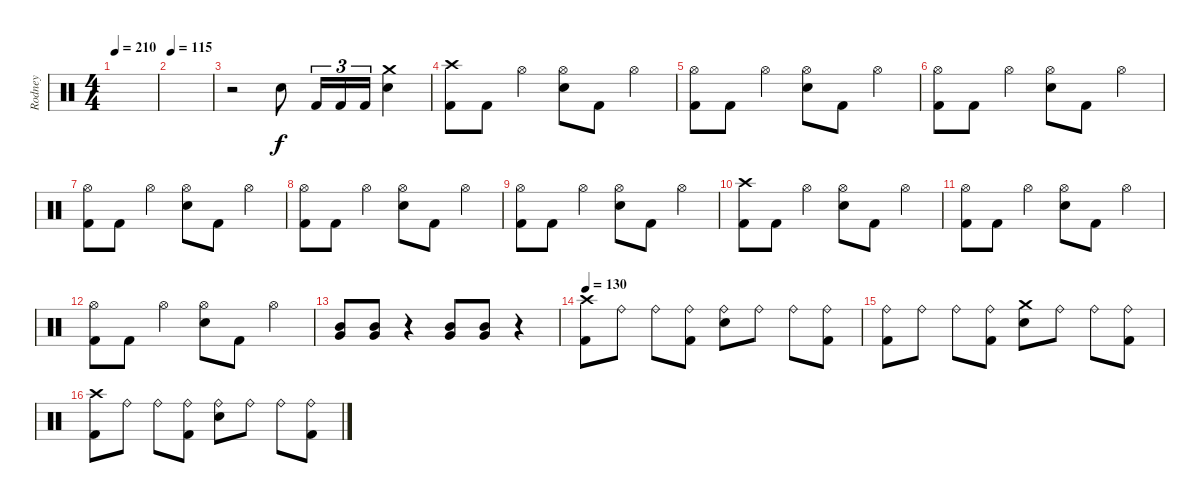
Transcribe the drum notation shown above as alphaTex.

\track ("Rodney" "Rodney") {instrument percussion}
\staff {score}
\articulation defaults
\ts (4 4)
\tempo 210
\tempo 25
\tempo 210
\clef neutral
\ks c
|
\tempo 115
|
r.2 "Snare (hit) 2".8 "Kick (hit) 2".16{tu (3 2)} "Kick (hit) 2".16{tu (3 2)} "Kick (hit) 2".16{tu (3 2)} ("Crash medium (hit)" "Snare (hit) 2").4 |
("Crash high (hit)" "Kick (hit) 2").8 "Kick (hit) 2".8 "Hi-Hat (open)".4 ("Hi-Hat (open)" "Snare (hit) 2").8 "Kick (hit) 2".8 "Hi-Hat (open)".4 |
("Hi-Hat (open)" "Kick (hit) 2").8 "Kick (hit) 2".8 "Hi-Hat (open)".4 ("Hi-Hat (open)" "Snare (hit) 2").8 "Kick (hit) 2".8 "Hi-Hat (open)".4 |
("Hi-Hat (open)" "Kick (hit) 2").8 "Kick (hit) 2".8 "Hi-Hat (open)".4 ("Hi-Hat (open)" "Snare (hit) 2").8 "Kick (hit) 2".8 "Hi-Hat (open)".4 |
("Hi-Hat (open)" "Kick (hit) 2").8 "Kick (hit) 2".8 "Hi-Hat (open)".4 ("Hi-Hat (open)" "Snare (hit) 2").8 "Kick (hit) 2".8 "Hi-Hat (open)".4 |
("Hi-Hat (open)" "Kick (hit) 2").8 "Kick (hit) 2".8 "Hi-Hat (open)".4 ("Hi-Hat (open)" "Snare (hit) 2").8 "Kick (hit) 2".8 "Hi-Hat (open)".4 |
("Hi-Hat (open)" "Kick (hit) 2").8 "Kick (hit) 2".8 "Hi-Hat (open)".4 ("Hi-Hat (open)" "Snare (hit) 2").8 "Kick (hit) 2".8 "Hi-Hat (open)".4 |
("Crash high (hit)" "Kick (hit) 2").8 "Kick (hit) 2".8 "Hi-Hat (open)".4 ("Hi-Hat (open)" "Snare (hit) 2").8 "Kick (hit) 2".8 "Hi-Hat (open)".4 |
("Hi-Hat (open)" "Kick (hit) 2").8 "Kick (hit) 2".8 "Hi-Hat (open)".4 ("Hi-Hat (open)" "Snare (hit) 2").8 "Kick (hit) 2".8 "Hi-Hat (open)".4 |
("Hi-Hat (open)" "Kick (hit) 2").8 "Kick (hit) 2".8 "Hi-Hat (open)".4 ("Hi-Hat (open)" "Snare (hit) 2").8 "Kick (hit) 2".8 "Hi-Hat (open)".4 |
("Mid Tom (hit)" "Very Low Tom (hit)").8 ("Mid Tom (hit)" "Very Low Tom (hit)").8 r.4 ("Mid Tom (hit)" "Very Low Tom (hit)").8 ("Mid Tom (hit)" "Very Low Tom (hit)").8 r.4 |
\tempo 130
("Crash high (hit)" "Kick (hit) 2").8 "Ride (bell)".8 "Ride (bell)".8 ("Ride (bell)" "Kick (hit) 2").8 ("Ride (bell)" "Snare (hit) 2").8 "Ride (bell)".8 "Ride (bell)".8 ("Ride (bell)" "Kick (hit) 2").8 |
("Ride (bell)" "Kick (hit) 2").8 "Ride (bell)".8 "Ride (bell)".8 ("Ride (bell)" "Kick (hit) 2").8 ("Crash medium (hit)" "Snare (hit) 2").8 "Ride (bell)".8 "Ride (bell)".8 ("Ride (bell)" "Kick (hit) 2").8 |
("Crash high (hit)" "Kick (hit) 2").8 "Ride (bell)".8 "Ride (bell)".8 ("Ride (bell)" "Kick (hit) 2").8 ("Ride (bell)" "Snare (hit) 2").8 "Ride (bell)".8 "Ride (bell)".8 ("Ride (bell)" "Kick (hit) 2").8
